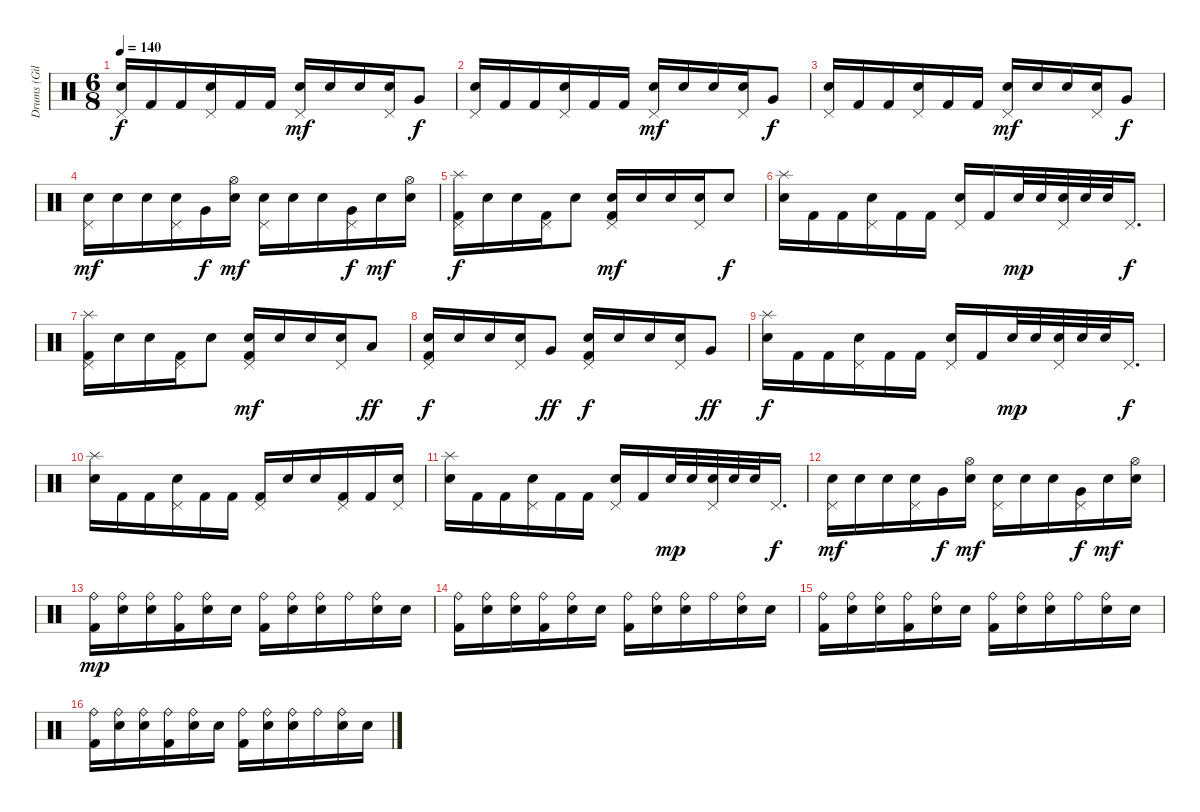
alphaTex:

\track ("Drums (Giles)" "Drums (Gil") {instrument percussion}
\staff {score}
\articulation defaults
\ts (6 8)
\tempo 140
\clef neutral
\ks c
("Pedal Hi-Hat (hit)" "Electric Snare (hit)").16{dy f} "Kick (hit) 2".16 "Kick (hit) 2".16 ("Pedal Hi-Hat (hit)" "Electric Snare (hit)").16 "Kick (hit) 2".16 "Kick (hit) 2".16 ("Pedal Hi-Hat (hit)" "Electric Snare (hit)").16{dy mf} "Electric Snare (hit)".16 "Electric Snare (hit)".16 ("Pedal Hi-Hat (hit)" "Electric Snare (hit)").16 "Very Low Tom (hit)".8{dy f} |
("Pedal Hi-Hat (hit)" "Electric Snare (hit)").16 "Kick (hit) 2".16 "Kick (hit) 2".16 ("Pedal Hi-Hat (hit)" "Electric Snare (hit)").16 "Kick (hit) 2".16 "Kick (hit) 2".16 ("Pedal Hi-Hat (hit)" "Electric Snare (hit)").16{dy mf} "Electric Snare (hit)".16 "Electric Snare (hit)".16 ("Pedal Hi-Hat (hit)" "Electric Snare (hit)").16 "Very Low Tom (hit)".8{dy f} |
("Pedal Hi-Hat (hit)" "Electric Snare (hit)").16 "Kick (hit) 2".16 "Kick (hit) 2".16 ("Pedal Hi-Hat (hit)" "Electric Snare (hit)").16 "Kick (hit) 2".16 "Kick (hit) 2".16 ("Pedal Hi-Hat (hit)" "Electric Snare (hit)").16{dy mf} "Electric Snare (hit)".16 "Electric Snare (hit)".16 ("Pedal Hi-Hat (hit)" "Electric Snare (hit)").16 "Very Low Tom (hit)".8{dy f} |
("Pedal Hi-Hat (hit)" "Electric Snare (hit)").16{dy mf} "Electric Snare (hit)".16 "Electric Snare (hit)".16 ("Pedal Hi-Hat (hit)" "Electric Snare (hit)").16 "Very Low Tom (hit)".16{dy f} ("Hi-Hat (open)" "Electric Snare (hit)").16{dy mf} ("Pedal Hi-Hat (hit)" "Electric Snare (hit)").16 "Electric Snare (hit)".16 "Electric Snare (hit)".16 ("Pedal Hi-Hat (hit)" "Very Low Tom (hit)").16{dy f} "Electric Snare (hit)".16{dy mf} ("Hi-Hat (open)" "Electric Snare (hit)").16 |
("Splash (hit)" "Pedal Hi-Hat (hit)" "Kick (hit) 2").16{dy f} "Electric Snare (hit)".16 "Electric Snare (hit)".16 ("Pedal Hi-Hat (hit)" "Kick (hit) 2").16 "Electric Snare (hit)".8 ("Pedal Hi-Hat (hit)" "Electric Snare (hit)" "Kick (hit) 2").16{dy mf} "Electric Snare (hit)".16 "Electric Snare (hit)".16 ("Pedal Hi-Hat (hit)" "Electric Snare (hit)").16 "Electric Snare (hit)".8{dy f} |
("Splash (hit)" "Electric Snare (hit)").16 "Kick (hit) 2".16 "Kick (hit) 2".16 ("Pedal Hi-Hat (hit)" "Electric Snare (hit)").16 "Kick (hit) 2".16 "Kick (hit) 2".16 ("Pedal Hi-Hat (hit)" "Electric Snare (hit)").16 "Kick (hit) 2".16 "Electric Snare (hit)".32{dy mp} "Electric Snare (hit)".32 ("Pedal Hi-Hat (hit)" "Electric Snare (hit)").32 "Electric Snare (hit)".32 "Electric Snare (hit)".32 "Pedal Hi-Hat (hit)".16{d dy f} |
("Splash (hit)" "Pedal Hi-Hat (hit)" "Kick (hit) 2").16 "Electric Snare (hit)".16 "Electric Snare (hit)".16 ("Pedal Hi-Hat (hit)" "Kick (hit) 2").16 "Electric Snare (hit)".8 ("Pedal Hi-Hat (hit)" "Electric Snare (hit)" "Kick (hit) 2").16{dy mf} "Electric Snare (hit)".16 "Electric Snare (hit)".16 ("Pedal Hi-Hat (hit)" "Electric Snare (hit)").16 "Low Tom (hit)".8{dy ff} |
("Pedal Hi-Hat (hit)" "Electric Snare (hit)" "Kick (hit) 2").16{dy f} "Electric Snare (hit)".16 "Electric Snare (hit)".16 ("Pedal Hi-Hat (hit)" "Electric Snare (hit)").16 "Very Low Tom (hit)".8{dy ff} ("Pedal Hi-Hat (hit)" "Electric Snare (hit)" "Kick (hit) 2").16{dy f} "Electric Snare (hit)".16 "Electric Snare (hit)".16 ("Pedal Hi-Hat (hit)" "Electric Snare (hit)").16 "Very Low Tom (hit)".8{dy ff} |
("Splash (hit)" "Electric Snare (hit)").16{dy f} "Kick (hit) 2".16 "Kick (hit) 2".16 ("Pedal Hi-Hat (hit)" "Electric Snare (hit)").16 "Kick (hit) 2".16 "Kick (hit) 2".16 ("Pedal Hi-Hat (hit)" "Electric Snare (hit)").16 "Kick (hit) 2".16 "Electric Snare (hit)".32{dy mp} "Electric Snare (hit)".32 ("Pedal Hi-Hat (hit)" "Electric Snare (hit)").32 "Electric Snare (hit)".32 "Electric Snare (hit)".32 "Pedal Hi-Hat (hit)".16{d dy f} |
("Splash (hit)" "Electric Snare (hit)").16 "Kick (hit) 2".16 "Kick (hit) 2".16 ("Pedal Hi-Hat (hit)" "Electric Snare (hit)").16 "Kick (hit) 2".16 "Kick (hit) 2".16 ("Pedal Hi-Hat (hit)" "Kick (hit) 2").16 "Electric Snare (hit)".16 "Electric Snare (hit)".16 ("Pedal Hi-Hat (hit)" "Kick (hit) 2").16 "Kick (hit) 2".16 ("Pedal Hi-Hat (hit)" "Electric Snare (hit)").16 |
("Splash (hit)" "Electric Snare (hit)").16 "Kick (hit) 2".16 "Kick (hit) 2".16 ("Pedal Hi-Hat (hit)" "Electric Snare (hit)").16 "Kick (hit) 2".16 "Kick (hit) 2".16 ("Pedal Hi-Hat (hit)" "Electric Snare (hit)").16 "Kick (hit) 2".16 "Electric Snare (hit)".32{dy mp} "Electric Snare (hit)".32 ("Pedal Hi-Hat (hit)" "Electric Snare (hit)").32 "Electric Snare (hit)".32 "Electric Snare (hit)".32 "Pedal Hi-Hat (hit)".16{d dy f} |
("Pedal Hi-Hat (hit)" "Electric Snare (hit)").16{dy mf} "Electric Snare (hit)".16 "Electric Snare (hit)".16 ("Pedal Hi-Hat (hit)" "Electric Snare (hit)").16 "Very Low Tom (hit)".16{dy f} ("Hi-Hat (open)" "Electric Snare (hit)").16{dy mf} ("Pedal Hi-Hat (hit)" "Electric Snare (hit)").16 "Electric Snare (hit)".16 "Electric Snare (hit)".16 ("Pedal Hi-Hat (hit)" "Very Low Tom (hit)").16{dy f} "Electric Snare (hit)".16{dy mf} ("Hi-Hat (open)" "Electric Snare (hit)").16 |
("Ride (bell)" "Kick (hit) 2").16{dy mp} ("Ride (bell)" "Electric Snare (hit)").16 ("Ride (bell)" "Electric Snare (hit)").16 ("Ride (bell)" "Kick (hit) 2").16 ("Ride (bell)" "Electric Snare (hit)").16 "Electric Snare (hit)".16 ("Ride (bell)" "Kick (hit) 2").16 ("Ride (bell)" "Electric Snare (hit)").16 ("Ride (bell)" "Electric Snare (hit)").16 "Ride (bell)".16 ("Ride (bell)" "Electric Snare (hit)").16 "Electric Snare (hit)".16 |
("Ride (bell)" "Kick (hit) 2").16 ("Ride (bell)" "Electric Snare (hit)").16 ("Ride (bell)" "Electric Snare (hit)").16 ("Ride (bell)" "Kick (hit) 2").16 ("Ride (bell)" "Electric Snare (hit)").16 "Electric Snare (hit)".16 ("Ride (bell)" "Kick (hit) 2").16 ("Ride (bell)" "Electric Snare (hit)").16 ("Ride (bell)" "Electric Snare (hit)").16 "Ride (bell)".16 ("Ride (bell)" "Electric Snare (hit)").16 "Electric Snare (hit)".16 |
("Ride (bell)" "Kick (hit) 2").16 ("Ride (bell)" "Electric Snare (hit)").16 ("Ride (bell)" "Electric Snare (hit)").16 ("Ride (bell)" "Kick (hit) 2").16 ("Ride (bell)" "Electric Snare (hit)").16 "Electric Snare (hit)".16 ("Ride (bell)" "Kick (hit) 2").16 ("Ride (bell)" "Electric Snare (hit)").16 ("Ride (bell)" "Electric Snare (hit)").16 "Ride (bell)".16 ("Ride (bell)" "Electric Snare (hit)").16 "Electric Snare (hit)".16 |
("Ride (bell)" "Kick (hit) 2").16 ("Ride (bell)" "Electric Snare (hit)").16 ("Ride (bell)" "Electric Snare (hit)").16 ("Ride (bell)" "Kick (hit) 2").16 ("Ride (bell)" "Electric Snare (hit)").16 "Electric Snare (hit)".16 ("Ride (bell)" "Kick (hit) 2").16 ("Ride (bell)" "Electric Snare (hit)").16 ("Ride (bell)" "Electric Snare (hit)").16 "Ride (bell)".16 ("Ride (bell)" "Electric Snare (hit)").16 "Electric Snare (hit)".16
